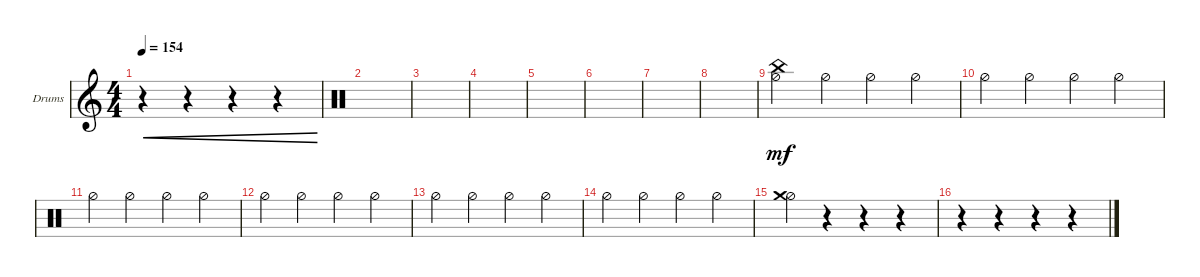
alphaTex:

\defaultSystemsLayout 4
\bracketExtendMode groupsimilarinstruments
\firstSystemTrackNameOrientation horizontal
\otherSystemsTrackNameOrientation horizontal
\track ("Drumkit" "Drums") {instrument percussion}
\staff {score}
\articulation defaults
\ts (4 4)
\tempo 154
\clef g2
\ks c
r.4{cre dy mf} r.4{cre} r.4{cre} r.4{cre} |
\clef neutral
|
|
|
|
|
|
|
("Hi-Hat (half)" "China (hit)").4 "Hi-Hat (half)".4 "Hi-Hat (half)".4 "Hi-Hat (half)".4 |
"Hi-Hat (half)".4 "Hi-Hat (half)".4 "Hi-Hat (half)".4 "Hi-Hat (half)".4 |
"Hi-Hat (half)".4 "Hi-Hat (half)".4 "Hi-Hat (half)".4 "Hi-Hat (half)".4 |
"Hi-Hat (half)".4 "Hi-Hat (half)".4 "Hi-Hat (half)".4 "Hi-Hat (half)".4 |
"Hi-Hat (half)".4 "Hi-Hat (half)".4 "Hi-Hat (half)".4 "Hi-Hat (half)".4 |
"Hi-Hat (half)".4 "Hi-Hat (half)".4 "Hi-Hat (half)".4 "Hi-Hat (half)".4 |
("Hi-Hat (half)" "Crash medium (hit)").4 r.4 r.4 r.4 |
r.4 r.4 r.4 r.4
